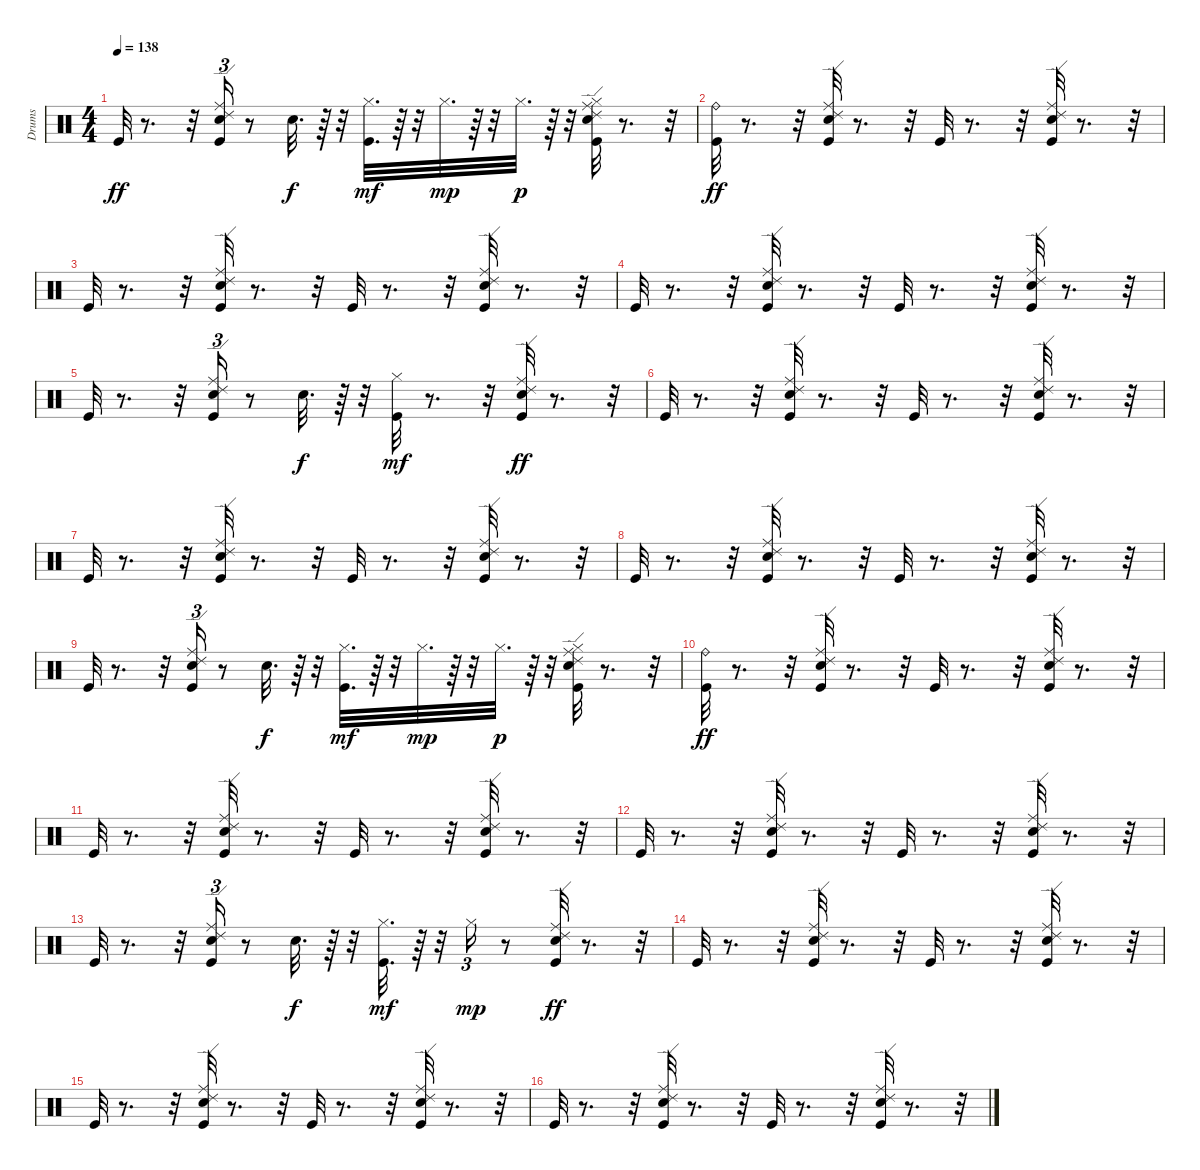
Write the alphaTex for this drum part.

\track ("Drums" "Drums") {instrument percussion}
\staff {score}
\articulation defaults
\ts (4 4)
\tempo 138
\clef neutral
\ks c "Kick (hit)".32{dy ff}
r.8{d} r.32 ("Ride (middle)" "Ride (edge) 2" "Kick (hit)" "Hand Clap (hit)").16{tu (3 2)} r.8 "Hand Clap (hit)".32{d dy f} r.64 r.32 ("Kick (hit)" "Hi-Hat (closed)").32{d dy mf} r.64 r.32 "Hi-Hat (closed)".32{d dy mp} r.64 r.32 "Hi-Hat (closed)".32{d dy p} r.64 r.32 ("Ride (middle)" "Ride (edge) 2" "Hand Clap (hit)" "Kick (hit)" "Hi-Hat (closed)").32 r.8{d} r.32 |
("Ride (bell)" "Kick (hit)").32{dy ff} r.8{d} r.32 ("Hand Clap (hit)" "Kick (hit)" "Ride (middle)" "Ride (edge) 2").32 r.8{d} r.32 "Kick (hit)".32 r.8{d} r.32 ("Ride (middle)" "Ride (edge) 2" "Hand Clap (hit)" "Kick (hit)").32 r.8{d} r.32 |
"Kick (hit)".32 r.8{d} r.32 ("Ride (middle)" "Ride (edge) 2" "Kick (hit)" "Hand Clap (hit)").32 r.8{d} r.32 "Kick (hit)".32 r.8{d} r.32 ("Ride (middle)" "Ride (edge) 2" "Kick (hit)" "Hand Clap (hit)").32 r.8{d} r.32 |
"Kick (hit)".32 r.8{d} r.32 ("Kick (hit)" "Hand Clap (hit)" "Ride (middle)" "Ride (edge) 2").32 r.8{d} r.32 "Kick (hit)".32 r.8{d} r.32 ("Ride (middle)" "Ride (edge) 2" "Hand Clap (hit)" "Kick (hit)").32 r.8{d} r.32 |
"Kick (hit)".32 r.8{d} r.32 ("Ride (middle)" "Ride (edge) 2" "Kick (hit)" "Hand Clap (hit)").16{tu (3 2)} r.8 "Hand Clap (hit)".32{d dy f} r.64 r.32 ("Kick (hit)" "Hi-Hat (closed)").32{dy mf} r.8{d} r.32 ("Ride (middle)" "Ride (edge) 2" "Hand Clap (hit)" "Kick (hit)").32{dy ff} r.8{d} r.32 |
"Kick (hit)".32 r.8{d} r.32 ("Hand Clap (hit)" "Kick (hit)" "Ride (middle)" "Ride (edge) 2").32 r.8{d} r.32 "Kick (hit)".32 r.8{d} r.32 ("Ride (middle)" "Ride (edge) 2" "Hand Clap (hit)" "Kick (hit)").32 r.8{d} r.32 |
"Kick (hit)".32 r.8{d} r.32 ("Ride (middle)" "Ride (edge) 2" "Kick (hit)" "Hand Clap (hit)").32 r.8{d} r.32 "Kick (hit)".32 r.8{d} r.32 ("Ride (middle)" "Ride (edge) 2" "Kick (hit)" "Hand Clap (hit)").32 r.8{d} r.32 |
"Kick (hit)".32 r.8{d} r.32 ("Kick (hit)" "Hand Clap (hit)" "Ride (middle)" "Ride (edge) 2").32 r.8{d} r.32 "Kick (hit)".32 r.8{d} r.32 ("Ride (middle)" "Ride (edge) 2" "Hand Clap (hit)" "Kick (hit)").32 r.8{d} r.32 |
"Kick (hit)".32 r.8{d} r.32 ("Ride (middle)" "Ride (edge) 2" "Kick (hit)" "Hand Clap (hit)").16{tu (3 2)} r.8 "Hand Clap (hit)".32{d dy f} r.64 r.32 ("Kick (hit)" "Hi-Hat (closed)").32{d dy mf} r.64 r.32 "Hi-Hat (closed)".32{d dy mp} r.64 r.32 "Hi-Hat (closed)".32{d dy p} r.64 r.32 ("Ride (middle)" "Ride (edge) 2" "Hand Clap (hit)" "Kick (hit)" "Hi-Hat (closed)").32 r.8{d} r.32 |
("Ride (bell)" "Kick (hit)").32{dy ff} r.8{d} r.32 ("Hand Clap (hit)" "Kick (hit)" "Ride (middle)" "Ride (edge) 2").32 r.8{d} r.32 "Kick (hit)".32 r.8{d} r.32 ("Ride (middle)" "Ride (edge) 2" "Hand Clap (hit)" "Kick (hit)").32 r.8{d} r.32 |
"Kick (hit)".32 r.8{d} r.32 ("Ride (middle)" "Ride (edge) 2" "Kick (hit)" "Hand Clap (hit)").32 r.8{d} r.32 "Kick (hit)".32 r.8{d} r.32 ("Ride (middle)" "Ride (edge) 2" "Kick (hit)" "Hand Clap (hit)").32 r.8{d} r.32 |
"Kick (hit)".32 r.8{d} r.32 ("Kick (hit)" "Hand Clap (hit)" "Ride (middle)" "Ride (edge) 2").32 r.8{d} r.32 "Kick (hit)".32 r.8{d} r.32 ("Ride (middle)" "Ride (edge) 2" "Hand Clap (hit)" "Kick (hit)").32 r.8{d} r.32 |
"Kick (hit)".32 r.8{d} r.32 ("Ride (middle)" "Ride (edge) 2" "Kick (hit)" "Hand Clap (hit)").16{tu (3 2)} r.8 "Hand Clap (hit)".32{d dy f} r.64 r.32 ("Kick (hit)" "Hi-Hat (closed)").32{d dy mf} r.64 r.32 "Hi-Hat (closed)".16{tu (3 2) dy mp} r.8 ("Ride (middle)" "Ride (edge) 2" "Hand Clap (hit)" "Kick (hit)").32{dy ff} r.8{d} r.32 |
"Kick (hit)".32 r.8{d} r.32 ("Hand Clap (hit)" "Kick (hit)" "Ride (middle)" "Ride (edge) 2").32 r.8{d} r.32 "Kick (hit)".32 r.8{d} r.32 ("Ride (middle)" "Ride (edge) 2" "Hand Clap (hit)" "Kick (hit)").32 r.8{d} r.32 |
"Kick (hit)".32 r.8{d} r.32 ("Ride (middle)" "Ride (edge) 2" "Kick (hit)" "Hand Clap (hit)").32 r.8{d} r.32 "Kick (hit)".32 r.8{d} r.32 ("Ride (middle)" "Ride (edge) 2" "Kick (hit)" "Hand Clap (hit)").32 r.8{d} r.32 |
"Kick (hit)".32 r.8{d} r.32 ("Kick (hit)" "Hand Clap (hit)" "Ride (middle)" "Ride (edge) 2").32 r.8{d} r.32 "Kick (hit)".32 r.8{d} r.32 ("Ride (middle)" "Ride (edge) 2" "Hand Clap (hit)" "Kick (hit)").32 r.8{d} r.32
